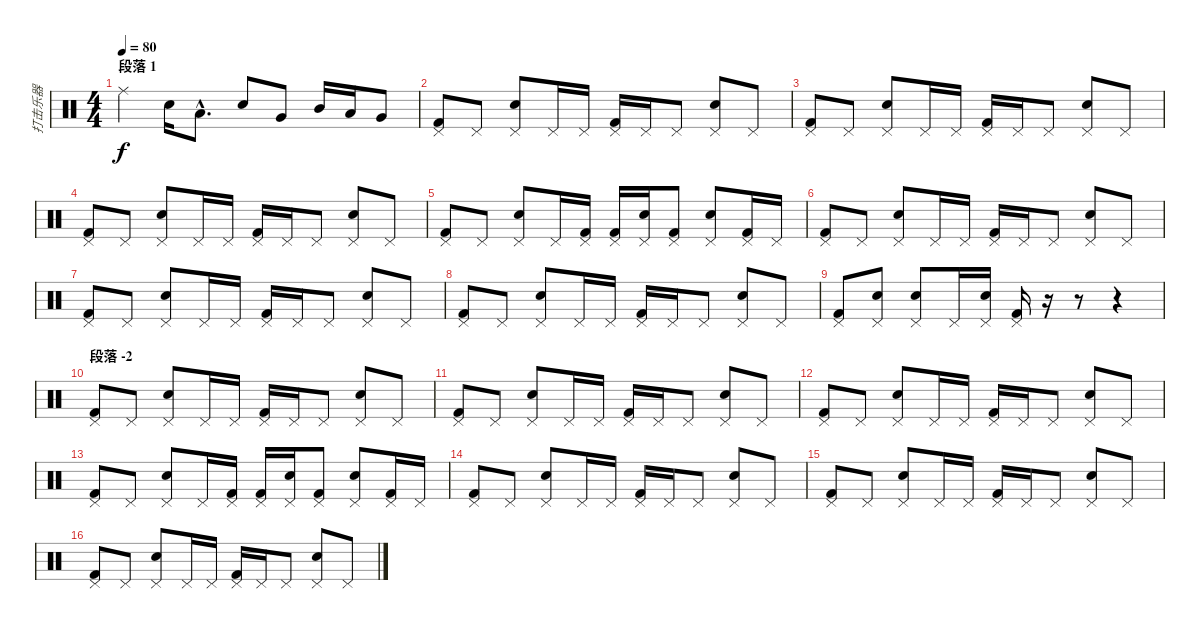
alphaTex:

\track ("打击乐器" "打击乐器") {instrument percussion}
\staff {score}
\articulation defaults
\ts (4 4)
\section ("" "段落 1")
\tempo 80
\clef neutral
\ks c "Ride (middle)".4{dy f} "Snare (hit) 2".16 "Low Floor Tom (hit)"{hac}.8{d} "Snare (hit) 2".8 "Very Low Tom (hit)".8 "Mid Tom (hit)".16 "Low Tom (hit)".16 "Very Low Tom (hit)".8
|
("Pedal Hi-Hat (hit)" "Kick (hit) 2").8 "Pedal Hi-Hat (hit)".8 ("Pedal Hi-Hat (hit)" "Snare (hit) 2").8 "Pedal Hi-Hat (hit)".16 "Pedal Hi-Hat (hit)".16 ("Pedal Hi-Hat (hit)" "Kick (hit) 2").16 "Pedal Hi-Hat (hit)".16 "Pedal Hi-Hat (hit)".8 ("Pedal Hi-Hat (hit)" "Snare (hit) 2").8 "Pedal Hi-Hat (hit)".8 |
("Pedal Hi-Hat (hit)" "Kick (hit) 2").8 "Pedal Hi-Hat (hit)".8 ("Pedal Hi-Hat (hit)" "Snare (hit) 2").8 "Pedal Hi-Hat (hit)".16 "Pedal Hi-Hat (hit)".16 ("Pedal Hi-Hat (hit)" "Kick (hit) 2").16 "Pedal Hi-Hat (hit)".16 "Pedal Hi-Hat (hit)".8 ("Pedal Hi-Hat (hit)" "Snare (hit) 2").8 "Pedal Hi-Hat (hit)".8 |
("Pedal Hi-Hat (hit)" "Kick (hit) 2").8 "Pedal Hi-Hat (hit)".8 ("Pedal Hi-Hat (hit)" "Snare (hit) 2").8 "Pedal Hi-Hat (hit)".16 "Pedal Hi-Hat (hit)".16 ("Pedal Hi-Hat (hit)" "Kick (hit) 2").16 "Pedal Hi-Hat (hit)".16 "Pedal Hi-Hat (hit)".8 ("Pedal Hi-Hat (hit)" "Snare (hit) 2").8 "Pedal Hi-Hat (hit)".8 |
("Pedal Hi-Hat (hit)" "Kick (hit) 2").8 "Pedal Hi-Hat (hit)".8 ("Pedal Hi-Hat (hit)" "Snare (hit) 2").8 "Pedal Hi-Hat (hit)".16 ("Pedal Hi-Hat (hit)" "Kick (hit) 2").16 ("Pedal Hi-Hat (hit)" "Kick (hit) 2").16 ("Pedal Hi-Hat (hit)" "Snare (hit) 2").16 ("Pedal Hi-Hat (hit)" "Kick (hit) 2").8 ("Pedal Hi-Hat (hit)" "Snare (hit) 2").8 ("Pedal Hi-Hat (hit)" "Kick (hit) 2").16 "Pedal Hi-Hat (hit)".16 |
("Pedal Hi-Hat (hit)" "Kick (hit) 2").8 "Pedal Hi-Hat (hit)".8 ("Pedal Hi-Hat (hit)" "Snare (hit) 2").8 "Pedal Hi-Hat (hit)".16 "Pedal Hi-Hat (hit)".16 ("Pedal Hi-Hat (hit)" "Kick (hit) 2").16 "Pedal Hi-Hat (hit)".16 "Pedal Hi-Hat (hit)".8 ("Pedal Hi-Hat (hit)" "Snare (hit) 2").8 "Pedal Hi-Hat (hit)".8 |
("Pedal Hi-Hat (hit)" "Kick (hit) 2").8 "Pedal Hi-Hat (hit)".8 ("Pedal Hi-Hat (hit)" "Snare (hit) 2").8 "Pedal Hi-Hat (hit)".16 "Pedal Hi-Hat (hit)".16 ("Pedal Hi-Hat (hit)" "Kick (hit) 2").16 "Pedal Hi-Hat (hit)".16 "Pedal Hi-Hat (hit)".8 ("Pedal Hi-Hat (hit)" "Snare (hit) 2").8 "Pedal Hi-Hat (hit)".8 |
("Pedal Hi-Hat (hit)" "Kick (hit) 2").8 "Pedal Hi-Hat (hit)".8 ("Pedal Hi-Hat (hit)" "Snare (hit) 2").8 "Pedal Hi-Hat (hit)".16 "Pedal Hi-Hat (hit)".16 ("Pedal Hi-Hat (hit)" "Kick (hit) 2").16 "Pedal Hi-Hat (hit)".16 "Pedal Hi-Hat (hit)".8 ("Pedal Hi-Hat (hit)" "Snare (hit) 2").8 "Pedal Hi-Hat (hit)".8 |
("Pedal Hi-Hat (hit)" "Kick (hit) 2").8 ("Pedal Hi-Hat (hit)" "Snare (hit) 2").8 ("Pedal Hi-Hat (hit)" "Snare (hit) 2").8 "Pedal Hi-Hat (hit)".16 ("Pedal Hi-Hat (hit)" "Snare (hit) 2").16 ("Pedal Hi-Hat (hit)" "Kick (hit) 2").16 r.16 r.8 r.4 |
\section ("" "段落 -2")
("Pedal Hi-Hat (hit)" "Kick (hit) 2").8 "Pedal Hi-Hat (hit)".8 ("Pedal Hi-Hat (hit)" "Snare (hit) 2").8 "Pedal Hi-Hat (hit)".16 "Pedal Hi-Hat (hit)".16 ("Pedal Hi-Hat (hit)" "Kick (hit) 2").16 "Pedal Hi-Hat (hit)".16 "Pedal Hi-Hat (hit)".8 ("Pedal Hi-Hat (hit)" "Snare (hit) 2").8 "Pedal Hi-Hat (hit)".8 |
("Pedal Hi-Hat (hit)" "Kick (hit) 2").8 "Pedal Hi-Hat (hit)".8 ("Pedal Hi-Hat (hit)" "Snare (hit) 2").8 "Pedal Hi-Hat (hit)".16 "Pedal Hi-Hat (hit)".16 ("Pedal Hi-Hat (hit)" "Kick (hit) 2").16 "Pedal Hi-Hat (hit)".16 "Pedal Hi-Hat (hit)".8 ("Pedal Hi-Hat (hit)" "Snare (hit) 2").8 "Pedal Hi-Hat (hit)".8 |
("Pedal Hi-Hat (hit)" "Kick (hit) 2").8 "Pedal Hi-Hat (hit)".8 ("Pedal Hi-Hat (hit)" "Snare (hit) 2").8 "Pedal Hi-Hat (hit)".16 "Pedal Hi-Hat (hit)".16 ("Pedal Hi-Hat (hit)" "Kick (hit) 2").16 "Pedal Hi-Hat (hit)".16 "Pedal Hi-Hat (hit)".8 ("Pedal Hi-Hat (hit)" "Snare (hit) 2").8 "Pedal Hi-Hat (hit)".8 |
("Pedal Hi-Hat (hit)" "Kick (hit) 2").8 "Pedal Hi-Hat (hit)".8 ("Pedal Hi-Hat (hit)" "Snare (hit) 2").8 "Pedal Hi-Hat (hit)".16 ("Pedal Hi-Hat (hit)" "Kick (hit) 2").16 ("Pedal Hi-Hat (hit)" "Kick (hit) 2").16 ("Pedal Hi-Hat (hit)" "Snare (hit) 2").16 ("Pedal Hi-Hat (hit)" "Kick (hit) 2").8 ("Pedal Hi-Hat (hit)" "Snare (hit) 2").8 ("Pedal Hi-Hat (hit)" "Kick (hit) 2").16 "Pedal Hi-Hat (hit)".16 |
("Pedal Hi-Hat (hit)" "Kick (hit) 2").8 "Pedal Hi-Hat (hit)".8 ("Pedal Hi-Hat (hit)" "Snare (hit) 2").8 "Pedal Hi-Hat (hit)".16 "Pedal Hi-Hat (hit)".16 ("Pedal Hi-Hat (hit)" "Kick (hit) 2").16 "Pedal Hi-Hat (hit)".16 "Pedal Hi-Hat (hit)".8 ("Pedal Hi-Hat (hit)" "Snare (hit) 2").8 "Pedal Hi-Hat (hit)".8 |
("Pedal Hi-Hat (hit)" "Kick (hit) 2").8 "Pedal Hi-Hat (hit)".8 ("Pedal Hi-Hat (hit)" "Snare (hit) 2").8 "Pedal Hi-Hat (hit)".16 "Pedal Hi-Hat (hit)".16 ("Pedal Hi-Hat (hit)" "Kick (hit) 2").16 "Pedal Hi-Hat (hit)".16 "Pedal Hi-Hat (hit)".8 ("Pedal Hi-Hat (hit)" "Snare (hit) 2").8 "Pedal Hi-Hat (hit)".8 |
("Pedal Hi-Hat (hit)" "Kick (hit) 2").8 "Pedal Hi-Hat (hit)".8 ("Pedal Hi-Hat (hit)" "Snare (hit) 2").8 "Pedal Hi-Hat (hit)".16 "Pedal Hi-Hat (hit)".16 ("Pedal Hi-Hat (hit)" "Kick (hit) 2").16 "Pedal Hi-Hat (hit)".16 "Pedal Hi-Hat (hit)".8 ("Pedal Hi-Hat (hit)" "Snare (hit) 2").8 "Pedal Hi-Hat (hit)".8
